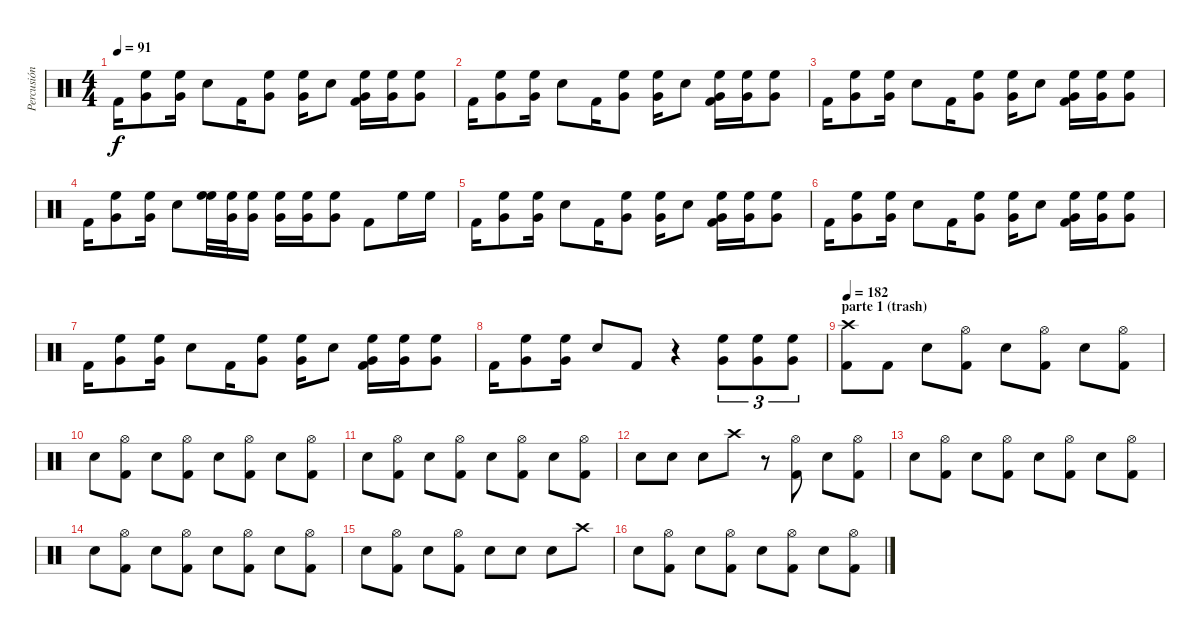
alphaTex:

\track ("Percusión" "Percusión") {instrument percussion}
\staff {score}
\articulation defaults
\ts (4 4)
\tempo 91
\clef neutral
\ks c "Kick (hit) 2".16{dy f}
("Very Low Tom (hit)" "High Floor Tom (hit)").8 ("Very Low Tom (hit)" "High Floor Tom (hit)").16 "Electric Snare (hit)".8 "Kick (hit) 2".16 ("Very Low Tom (hit)" "High Floor Tom (hit)").8 ("Very Low Tom (hit)" "High Floor Tom (hit)").16 "Electric Snare (hit)".8 ("Very Low Tom (hit)" "High Floor Tom (hit)" "Kick (hit) 2").16 ("Very Low Tom (hit)" "High Floor Tom (hit)").16 ("Very Low Tom (hit)" "High Floor Tom (hit)").8 |
"Kick (hit) 2".16 ("Very Low Tom (hit)" "High Floor Tom (hit)").8 ("Very Low Tom (hit)" "High Floor Tom (hit)").16 "Electric Snare (hit)".8 "Kick (hit) 2".16 ("Very Low Tom (hit)" "High Floor Tom (hit)").8 ("Very Low Tom (hit)" "High Floor Tom (hit)").16 "Electric Snare (hit)".8 ("Very Low Tom (hit)" "High Floor Tom (hit)" "Kick (hit) 2").16 ("Very Low Tom (hit)" "High Floor Tom (hit)").16 ("Very Low Tom (hit)" "High Floor Tom (hit)").8 |
"Kick (hit) 2".16 ("Very Low Tom (hit)" "High Floor Tom (hit)").8 ("Very Low Tom (hit)" "High Floor Tom (hit)").16 "Electric Snare (hit)".8 "Kick (hit) 2".16 ("Very Low Tom (hit)" "High Floor Tom (hit)").8 ("Very Low Tom (hit)" "High Floor Tom (hit)").16 "Electric Snare (hit)".8 ("Very Low Tom (hit)" "High Floor Tom (hit)" "Kick (hit) 2").16 ("Very Low Tom (hit)" "High Floor Tom (hit)").16 ("Very Low Tom (hit)" "High Floor Tom (hit)").8 |
"Kick (hit) 2".16 ("Very Low Tom (hit)" "High Floor Tom (hit)").8 ("Very Low Tom (hit)" "High Floor Tom (hit)").16 "Electric Snare (hit)".8 ("High Floor Tom (hit)" "High Floor Tom (hit)").32 ("Very Low Tom (hit)" "High Floor Tom (hit)").32 ("Very Low Tom (hit)" "High Floor Tom (hit)").16 ("Very Low Tom (hit)" "High Floor Tom (hit)").16 ("Very Low Tom (hit)" "High Floor Tom (hit)").16 ("Very Low Tom (hit)" "High Floor Tom (hit)").8 "Kick (hit) 2".8 "High Floor Tom (hit)".16 "High Floor Tom (hit)".16 |
"Kick (hit) 2".16 ("Very Low Tom (hit)" "High Floor Tom (hit)").8 ("Very Low Tom (hit)" "High Floor Tom (hit)").16 "Electric Snare (hit)".8 "Kick (hit) 2".16 ("Very Low Tom (hit)" "High Floor Tom (hit)").8 ("Very Low Tom (hit)" "High Floor Tom (hit)").16 "Electric Snare (hit)".8 ("Very Low Tom (hit)" "High Floor Tom (hit)" "Kick (hit) 2").16 ("Very Low Tom (hit)" "High Floor Tom (hit)").16 ("Very Low Tom (hit)" "High Floor Tom (hit)").8 |
"Kick (hit) 2".16 ("Very Low Tom (hit)" "High Floor Tom (hit)").8 ("Very Low Tom (hit)" "High Floor Tom (hit)").16 "Electric Snare (hit)".8 "Kick (hit) 2".16 ("Very Low Tom (hit)" "High Floor Tom (hit)").8 ("Very Low Tom (hit)" "High Floor Tom (hit)").16 "Electric Snare (hit)".8 ("Very Low Tom (hit)" "High Floor Tom (hit)" "Kick (hit) 2").16 ("Very Low Tom (hit)" "High Floor Tom (hit)").16 ("Very Low Tom (hit)" "High Floor Tom (hit)").8 |
"Kick (hit) 2".16 ("Very Low Tom (hit)" "High Floor Tom (hit)").8 ("Very Low Tom (hit)" "High Floor Tom (hit)").16 "Electric Snare (hit)".8 "Kick (hit) 2".16 ("Very Low Tom (hit)" "High Floor Tom (hit)").8 ("Very Low Tom (hit)" "High Floor Tom (hit)").16 "Electric Snare (hit)".8 ("Very Low Tom (hit)" "High Floor Tom (hit)" "Kick (hit) 2").16 ("Very Low Tom (hit)" "High Floor Tom (hit)").16 ("Very Low Tom (hit)" "High Floor Tom (hit)").8 |
"Kick (hit) 2".16 ("Very Low Tom (hit)" "High Floor Tom (hit)").8 ("Very Low Tom (hit)" "High Floor Tom (hit)").16 "Electric Snare (hit)".8 "Kick (hit) 2".8 r.4 ("Very Low Tom (hit)" "High Floor Tom (hit)").8{tu (3 2)} ("Very Low Tom (hit)" "High Floor Tom (hit)").8{tu (3 2)} ("Very Low Tom (hit)" "High Floor Tom (hit)").8{tu (3 2)} |
\section ("" "parte 1 (trash)")
\tempo 185
\tempo 182
("Crash high (hit)" "Kick (hit) 2").8 "Kick (hit) 2".8 "Electric Snare (hit)".8 ("Hi-Hat (open)" "Kick (hit) 2").8 "Electric Snare (hit)".8 ("Hi-Hat (open)" "Kick (hit) 2").8 "Electric Snare (hit)".8 ("Hi-Hat (open)" "Kick (hit) 2").8 |
"Electric Snare (hit)".8 ("Hi-Hat (open)" "Kick (hit) 2").8 "Electric Snare (hit)".8 ("Hi-Hat (open)" "Kick (hit) 2").8 "Electric Snare (hit)".8 ("Hi-Hat (open)" "Kick (hit) 2").8 "Electric Snare (hit)".8 ("Hi-Hat (open)" "Kick (hit) 2").8 |
"Electric Snare (hit)".8 ("Hi-Hat (open)" "Kick (hit) 2").8 "Electric Snare (hit)".8 ("Hi-Hat (open)" "Kick (hit) 2").8 "Electric Snare (hit)".8 ("Hi-Hat (open)" "Kick (hit) 2").8 "Electric Snare (hit)".8 ("Hi-Hat (open)" "Kick (hit) 2").8 |
"Electric Snare (hit)".8 "Electric Snare (hit)".8 "Electric Snare (hit)".8 "Crash high (hit)".8 r.8 ("Hi-Hat (open)" "Kick (hit) 2").8 "Electric Snare (hit)".8 ("Hi-Hat (open)" "Kick (hit) 2").8 |
"Electric Snare (hit)".8 ("Hi-Hat (open)" "Kick (hit) 2").8 "Electric Snare (hit)".8 ("Hi-Hat (open)" "Kick (hit) 2").8 "Electric Snare (hit)".8 ("Hi-Hat (open)" "Kick (hit) 2").8 "Electric Snare (hit)".8 ("Hi-Hat (open)" "Kick (hit) 2").8 |
"Electric Snare (hit)".8 ("Hi-Hat (open)" "Kick (hit) 2").8 "Electric Snare (hit)".8 ("Hi-Hat (open)" "Kick (hit) 2").8 "Electric Snare (hit)".8 ("Hi-Hat (open)" "Kick (hit) 2").8 "Electric Snare (hit)".8 ("Hi-Hat (open)" "Kick (hit) 2").8 |
"Electric Snare (hit)".8 ("Hi-Hat (open)" "Kick (hit) 2").8 "Electric Snare (hit)".8 ("Hi-Hat (open)" "Kick (hit) 2").8 "Electric Snare (hit)".8 "Electric Snare (hit)".8 "Electric Snare (hit)".8 "Crash high (hit)".8 |
"Electric Snare (hit)".8 ("Hi-Hat (open)" "Kick (hit) 2").8 "Electric Snare (hit)".8 ("Hi-Hat (open)" "Kick (hit) 2").8 "Electric Snare (hit)".8 ("Hi-Hat (open)" "Kick (hit) 2").8 "Electric Snare (hit)".8 ("Hi-Hat (open)" "Kick (hit) 2").8
